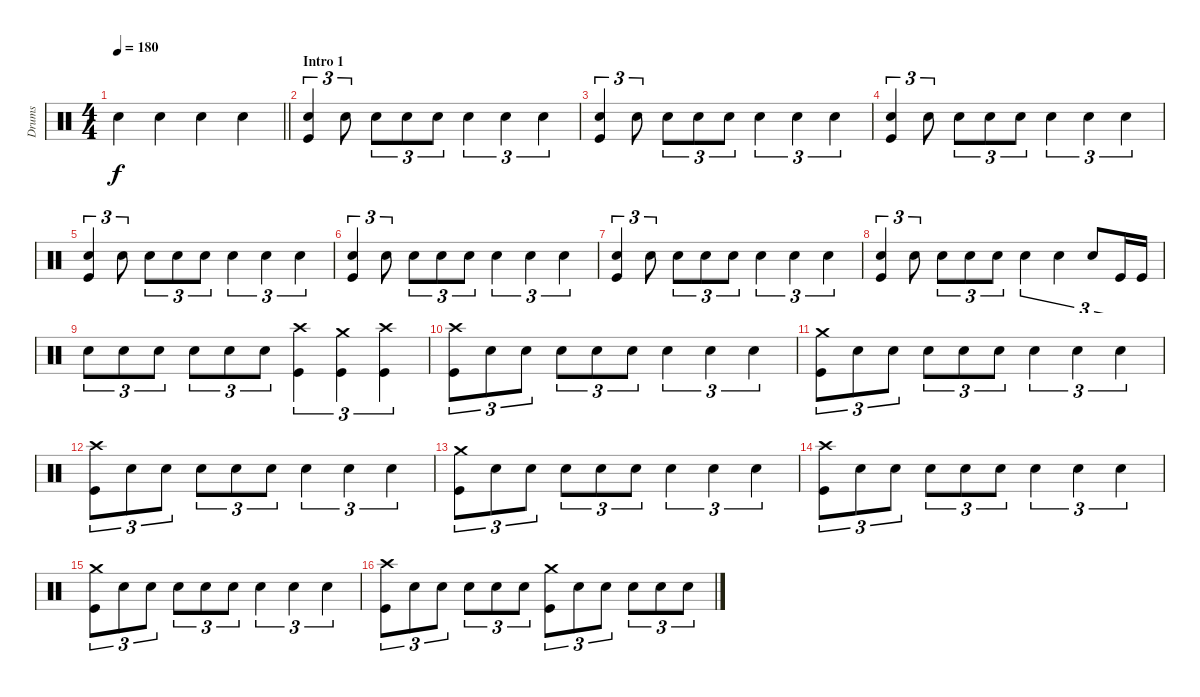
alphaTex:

\track ("Drums" "Drums") {instrument percussion}
\staff {score}
\articulation defaults
\ts (4 4)
\tempo 180
\clef neutral
\barLineRight lightlight
\ks c "Electric Snare (hit)".4{dy f} "Electric Snare (hit)".4 "Electric Snare (hit)".4 "Electric Snare (hit)".4
|
\section ("" "Intro 1")
("Electric Snare (hit)" "Kick (hit)").4{tu (3 2)} "Electric Snare (hit)".8{tu (3 2)} "Electric Snare (hit)".8{tu (3 2)} "Electric Snare (hit)".8{tu (3 2)} "Electric Snare (hit)".8{tu (3 2)} "Electric Snare (hit)".4{tu (3 2)} "Electric Snare (hit)".4{tu (3 2)} "Electric Snare (hit)".4{tu (3 2)} |
("Electric Snare (hit)" "Kick (hit)").4{tu (3 2)} "Electric Snare (hit)".8{tu (3 2)} "Electric Snare (hit)".8{tu (3 2)} "Electric Snare (hit)".8{tu (3 2)} "Electric Snare (hit)".8{tu (3 2)} "Electric Snare (hit)".4{tu (3 2)} "Electric Snare (hit)".4{tu (3 2)} "Electric Snare (hit)".4{tu (3 2)} |
("Electric Snare (hit)" "Kick (hit)").4{tu (3 2)} "Electric Snare (hit)".8{tu (3 2)} "Electric Snare (hit)".8{tu (3 2)} "Electric Snare (hit)".8{tu (3 2)} "Electric Snare (hit)".8{tu (3 2)} "Electric Snare (hit)".4{tu (3 2)} "Electric Snare (hit)".4{tu (3 2)} "Electric Snare (hit)".4{tu (3 2)} |
("Electric Snare (hit)" "Kick (hit)").4{tu (3 2)} "Electric Snare (hit)".8{tu (3 2)} "Electric Snare (hit)".8{tu (3 2)} "Electric Snare (hit)".8{tu (3 2)} "Electric Snare (hit)".8{tu (3 2)} "Electric Snare (hit)".4{tu (3 2)} "Electric Snare (hit)".4{tu (3 2)} "Electric Snare (hit)".4{tu (3 2)} |
("Electric Snare (hit)" "Kick (hit)").4{tu (3 2)} "Electric Snare (hit)".8{tu (3 2)} "Electric Snare (hit)".8{tu (3 2)} "Electric Snare (hit)".8{tu (3 2)} "Electric Snare (hit)".8{tu (3 2)} "Electric Snare (hit)".4{tu (3 2)} "Electric Snare (hit)".4{tu (3 2)} "Electric Snare (hit)".4{tu (3 2)} |
("Electric Snare (hit)" "Kick (hit)").4{tu (3 2)} "Electric Snare (hit)".8{tu (3 2)} "Electric Snare (hit)".8{tu (3 2)} "Electric Snare (hit)".8{tu (3 2)} "Electric Snare (hit)".8{tu (3 2)} "Electric Snare (hit)".4{tu (3 2)} "Electric Snare (hit)".4{tu (3 2)} "Electric Snare (hit)".4{tu (3 2)} |
("Electric Snare (hit)" "Kick (hit)").4{tu (3 2)} "Electric Snare (hit)".8{tu (3 2)} "Electric Snare (hit)".8{tu (3 2)} "Electric Snare (hit)".8{tu (3 2)} "Electric Snare (hit)".8{tu (3 2)} "Electric Snare (hit)".4{tu (3 2)} "Electric Snare (hit)".4{tu (3 2)} "Electric Snare (hit)".8{tu (3 2)} "Kick (hit)".16{tu (3 2)} "Kick (hit)".16{tu (3 2)} |
"Electric Snare (hit)".8{tu (3 2)} "Electric Snare (hit)".8{tu (3 2)} "Electric Snare (hit)".8{tu (3 2)} "Electric Snare (hit)".8{tu (3 2)} "Electric Snare (hit)".8{tu (3 2)} "Electric Snare (hit)".8{tu (3 2)} ("Crash high (hit)" "Kick (hit)").4{tu (3 2)} ("Crash medium (hit)" "Kick (hit)").4{tu (3 2)} ("Crash high (hit)" "Kick (hit)").4{tu (3 2)} |
("Crash high (hit)" "Kick (hit)").8{tu (3 2)} "Electric Snare (hit)".8{tu (3 2)} "Electric Snare (hit)".8{tu (3 2)} "Electric Snare (hit)".8{tu (3 2)} "Electric Snare (hit)".8{tu (3 2)} "Electric Snare (hit)".8{tu (3 2)} "Electric Snare (hit)".4{tu (3 2)} "Electric Snare (hit)".4{tu (3 2)} "Electric Snare (hit)".4{tu (3 2)} |
("Crash medium (hit)" "Kick (hit)").8{tu (3 2)} "Electric Snare (hit)".8{tu (3 2)} "Electric Snare (hit)".8{tu (3 2)} "Electric Snare (hit)".8{tu (3 2)} "Electric Snare (hit)".8{tu (3 2)} "Electric Snare (hit)".8{tu (3 2)} "Electric Snare (hit)".4{tu (3 2)} "Electric Snare (hit)".4{tu (3 2)} "Electric Snare (hit)".4{tu (3 2)} |
("Crash high (hit)" "Kick (hit)").8{tu (3 2)} "Electric Snare (hit)".8{tu (3 2)} "Electric Snare (hit)".8{tu (3 2)} "Electric Snare (hit)".8{tu (3 2)} "Electric Snare (hit)".8{tu (3 2)} "Electric Snare (hit)".8{tu (3 2)} "Electric Snare (hit)".4{tu (3 2)} "Electric Snare (hit)".4{tu (3 2)} "Electric Snare (hit)".4{tu (3 2)} |
("Crash medium (hit)" "Kick (hit)").8{tu (3 2)} "Electric Snare (hit)".8{tu (3 2)} "Electric Snare (hit)".8{tu (3 2)} "Electric Snare (hit)".8{tu (3 2)} "Electric Snare (hit)".8{tu (3 2)} "Electric Snare (hit)".8{tu (3 2)} "Electric Snare (hit)".4{tu (3 2)} "Electric Snare (hit)".4{tu (3 2)} "Electric Snare (hit)".4{tu (3 2)} |
("Crash high (hit)" "Kick (hit)").8{tu (3 2)} "Electric Snare (hit)".8{tu (3 2)} "Electric Snare (hit)".8{tu (3 2)} "Electric Snare (hit)".8{tu (3 2)} "Electric Snare (hit)".8{tu (3 2)} "Electric Snare (hit)".8{tu (3 2)} "Electric Snare (hit)".4{tu (3 2)} "Electric Snare (hit)".4{tu (3 2)} "Electric Snare (hit)".4{tu (3 2)} |
("Crash medium (hit)" "Kick (hit)").8{tu (3 2)} "Electric Snare (hit)".8{tu (3 2)} "Electric Snare (hit)".8{tu (3 2)} "Electric Snare (hit)".8{tu (3 2)} "Electric Snare (hit)".8{tu (3 2)} "Electric Snare (hit)".8{tu (3 2)} "Electric Snare (hit)".4{tu (3 2)} "Electric Snare (hit)".4{tu (3 2)} "Electric Snare (hit)".4{tu (3 2)} |
("Crash high (hit)" "Kick (hit)").8{tu (3 2)} "Electric Snare (hit)".8{tu (3 2)} "Electric Snare (hit)".8{tu (3 2)} "Electric Snare (hit)".8{tu (3 2)} "Electric Snare (hit)".8{tu (3 2)} "Electric Snare (hit)".8{tu (3 2)} ("Crash medium (hit)" "Kick (hit)").8{tu (3 2)} "Electric Snare (hit)".8{tu (3 2)} "Electric Snare (hit)".8{tu (3 2)} "Electric Snare (hit)".8{tu (3 2)} "Electric Snare (hit)".8{tu (3 2)} "Electric Snare (hit)".8{tu (3 2)}
